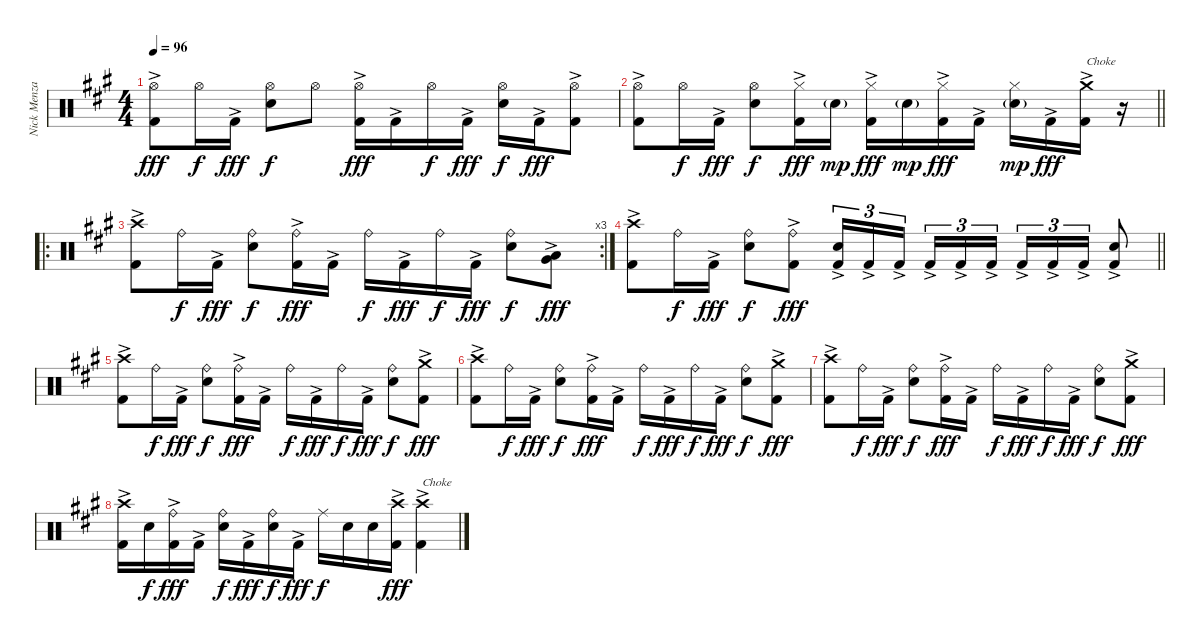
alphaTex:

\track ("Nick Menza" "Nick Menza") {instrument percussion}
\staff {score}
\articulation defaults
\ts (4 4)
\tempo 96
\clef neutral
\ks f#minor
("Hi-Hat (open)" "Kick (hit) 2"{ac}).8{dy fff} "Hi-Hat (open)".16{dy f} "Kick (hit) 2"{ac}.16{dy fff} ("Hi-Hat (open)" "Snare (hit) 2").8{dy f} "Hi-Hat (open)".8 ("Hi-Hat (open)" "Kick (hit) 2"{ac}).16{dy fff} "Kick (hit) 2"{ac}.16 "Hi-Hat (open)".16{dy f} "Kick (hit) 2"{ac}.16{dy fff} ("Hi-Hat (open)" "Snare (hit) 2").16{dy f} "Kick (hit) 2"{ac}.16{dy fff} ("Hi-Hat (open)" "Kick (hit) 2"{ac}).8 |
\barLineRight lightlight
("Hi-Hat (open)" "Kick (hit) 2"{ac}).8 "Hi-Hat (open)".16{dy f} "Kick (hit) 2"{ac}.16{dy fff} ("Hi-Hat (open)" "Snare (hit) 2").8{dy f} ("Hi-Hat (closed)" "Kick (hit) 2"{ac}).16{dy fff} "Snare (hit) 2"{g}.16{dy mp} ("Hi-Hat (closed)" "Kick (hit) 2"{ac}).16{dy fff} "Snare (hit) 2"{g}.16{dy mp} ("Hi-Hat (closed)" "Kick (hit) 2"{ac}).16{dy fff} "Kick (hit) 2"{ac}.16 ("Hi-Hat (closed)" "Snare (hit) 2"{g}).16{dy mp} "Kick (hit) 2"{ac}.16{dy fff} ("Crash medium (hit)" "Kick (hit) 2"{ac}).16{txt "Choke"} r.16 |
\ro
\rc 3
("Crash high (hit)" "Kick (hit) 2"{ac}).8 "Ride (bell)".16{dy f} "Kick (hit) 2"{ac}.16{dy fff} ("Ride (bell)" "Snare (hit) 2").8{dy f} ("Ride (bell)" "Kick (hit) 2"{ac}).16{dy fff} "Kick (hit) 2"{ac}.16 "Ride (bell)".16{dy f} "Kick (hit) 2"{ac}.16{dy fff} "Ride (bell)".16{dy f} "Kick (hit) 2"{ac}.16{dy fff} ("Ride (bell)" "Snare (hit) 2").8{dy f} ("Low Tom (hit)"{ac} "Very Low Tom (hit)"{ac}).8{dy fff} |
\barLineRight lightlight
("Crash high (hit)" "Kick (hit) 2"{ac}).8 "Ride (bell)".16{dy f} "Kick (hit) 2"{ac}.16{dy fff} ("Ride (bell)" "Snare (hit) 2").8{dy f} ("Ride (bell)" "Kick (hit) 2"{ac}).8{dy fff} ("Snare (hit) 2"{ac} "Kick (hit) 2"{ac}).16{tu (3 2)} "Kick (hit) 2"{ac}.16{tu (3 2)} "Kick (hit) 2"{ac}.16{tu (3 2) beam splitsecondary} "Kick (hit) 2"{ac}.16{tu (3 2)} "Kick (hit) 2"{ac}.16{tu (3 2)} "Kick (hit) 2"{ac}.16{tu (3 2)} "Kick (hit) 2"{ac}.16{tu (3 2)} "Kick (hit) 2"{ac}.16{tu (3 2)} "Kick (hit) 2"{ac}.16{tu (3 2)} ("Snare (hit) 2"{ac} "Kick (hit) 2"{ac}).8 |
("Crash high (hit)" "Kick (hit) 2"{ac}).8 "Ride (bell)".16{dy f} "Kick (hit) 2"{ac}.16{dy fff} ("Ride (bell)" "Snare (hit) 2").8{dy f} ("Ride (bell)" "Kick (hit) 2"{ac}).16{dy fff} "Kick (hit) 2"{ac}.16 "Ride (bell)".16{dy f} "Kick (hit) 2"{ac}.16{dy fff} "Ride (bell)".16{dy f} "Kick (hit) 2"{ac}.16{dy fff} ("Ride (bell)" "Snare (hit) 2").8{dy f} ("Crash medium (hit)" "Kick (hit) 2"{ac}).8{dy fff} |
("Crash high (hit)" "Kick (hit) 2"{ac}).8 "Ride (bell)".16{dy f} "Kick (hit) 2"{ac}.16{dy fff} ("Ride (bell)" "Snare (hit) 2").8{dy f} ("Ride (bell)" "Kick (hit) 2"{ac}).16{dy fff} "Kick (hit) 2"{ac}.16 "Ride (bell)".16{dy f} "Kick (hit) 2"{ac}.16{dy fff} "Ride (bell)".16{dy f} "Kick (hit) 2"{ac}.16{dy fff} ("Ride (bell)" "Snare (hit) 2").8{dy f} ("Crash medium (hit)" "Kick (hit) 2"{ac}).8{dy fff} |
("Crash high (hit)" "Kick (hit) 2"{ac}).8 "Ride (bell)".16{dy f} "Kick (hit) 2"{ac}.16{dy fff} ("Ride (bell)" "Snare (hit) 2").8{dy f} ("Ride (bell)" "Kick (hit) 2"{ac}).16{dy fff} "Kick (hit) 2"{ac}.16 "Ride (bell)".16{dy f} "Kick (hit) 2"{ac}.16{dy fff} "Ride (bell)".16{dy f} "Kick (hit) 2"{ac}.16{dy fff} ("Ride (bell)" "Snare (hit) 2").8{dy f} ("Crash medium (hit)" "Kick (hit) 2"{ac}).8{dy fff} |
("Crash high (hit)" "Kick (hit) 2"{ac}).16 "Snare (hit) 2".16{dy f} ("Ride (bell)" "Kick (hit) 2"{ac}).16{dy fff} "Kick (hit) 2"{ac}.16 ("Ride (bell)" "Snare (hit) 2").16{dy f} "Kick (hit) 2"{ac}.16{dy fff} ("Ride (bell)" "Snare (hit) 2").16{dy f} "Kick (hit) 2"{ac}.16{dy fff} "Ride (middle)".16{dy f} "Snare (hit) 2".16 "Snare (hit) 2".16 ("Crash high (hit)" "Kick (hit) 2"{ac}).16{dy fff} ("Crash high (hit)" "Kick (hit) 2"{ac}).4{txt "Choke"}
